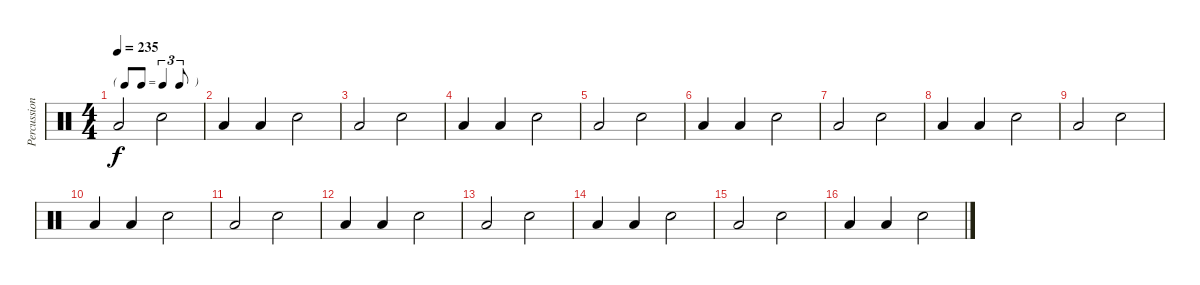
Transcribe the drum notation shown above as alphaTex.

\track ("Percussions" "Percussion") {instrument percussion}
\staff
\articulation defaults
\ts (4 4)
\tf triplet8th
\tempo 235
\clef neutral
\ks c "Low Tom (hit)".2{dy f} "Snare (hit) 2".2
|
"Low Tom (hit)".4 "Low Tom (hit)".4 "Snare (hit) 2".2 |
"Low Tom (hit)".2 "Snare (hit) 2".2 |
"Low Tom (hit)".4 "Low Tom (hit)".4 "Snare (hit) 2".2 |
"Low Tom (hit)".2 "Snare (hit) 2".2 |
"Low Tom (hit)".4 "Low Tom (hit)".4 "Snare (hit) 2".2 |
"Low Tom (hit)".2 "Snare (hit) 2".2 |
"Low Tom (hit)".4 "Low Tom (hit)".4 "Snare (hit) 2".2 |
"Low Tom (hit)".2 "Snare (hit) 2".2 |
"Low Tom (hit)".4 "Low Tom (hit)".4 "Snare (hit) 2".2 |
"Low Tom (hit)".2 "Snare (hit) 2".2 |
"Low Tom (hit)".4 "Low Tom (hit)".4 "Snare (hit) 2".2 |
"Low Tom (hit)".2 "Snare (hit) 2".2 |
"Low Tom (hit)".4 "Low Tom (hit)".4 "Snare (hit) 2".2 |
"Low Tom (hit)".2 "Snare (hit) 2".2 |
"Low Tom (hit)".4 "Low Tom (hit)".4 "Snare (hit) 2".2
